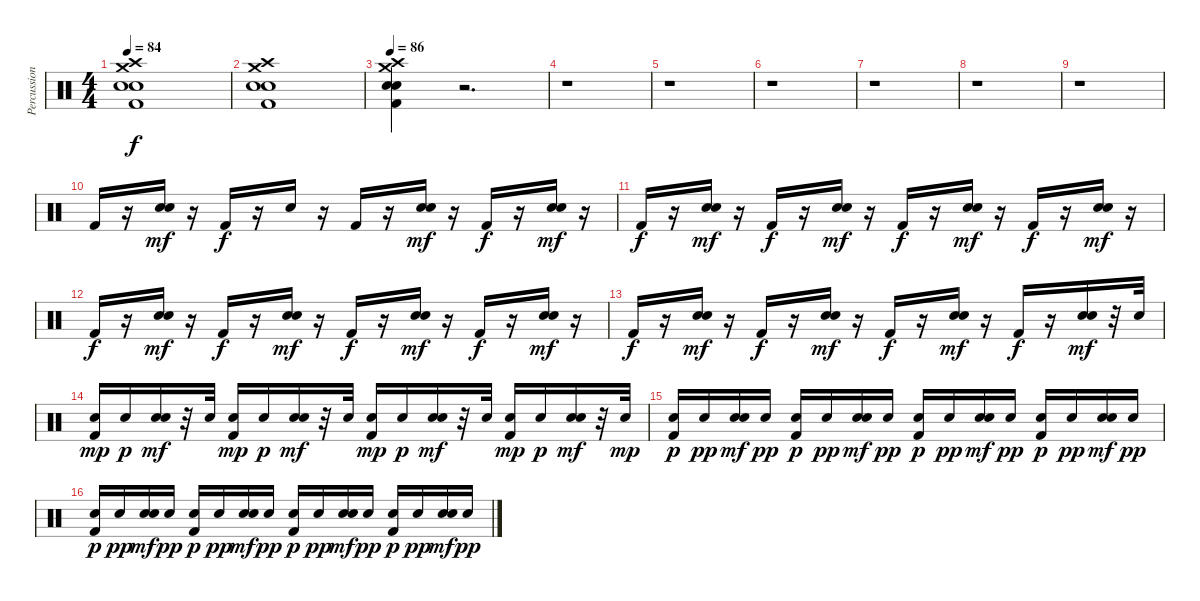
\track ("Percussion" "Percussion") {instrument percussion}
\staff
\articulation defaults
\ts (4 4)
\tempo 84
\clef neutral
\ks c
("Crash high (hit)" "Crash medium (hit)" "Electric Snare (hit)" "Snare (hit) 2" "Kick (hit) 2").1{dy f} |
("Crash high (hit)" "Crash medium (hit)" "Electric Snare (hit)" "Snare (hit) 2" "Kick (hit) 2").1 |
\tempo 86
("Crash high (hit)" "Crash medium (hit)" "Electric Snare (hit)" "Snare (hit) 2" "Kick (hit) 2").4 r.2{d} |
r.1 |
r.1 |
r.1 |
r.1 |
r.1 |
r.1{volume 3 balance 2} |
"Kick (hit) 2".16{volume 12} r.16 ("Snare (hit) 2" "Electric Snare (hit)").16{dy mf} r.16 "Kick (hit) 2".16{dy f} r.16 "Snare (hit) 2".16 r.16 "Kick (hit) 2".16 r.16 ("Electric Snare (hit)" "Snare (hit) 2").16{dy mf} r.16 "Kick (hit) 2".16{dy f volume 8} r.16 ("Electric Snare (hit)" "Snare (hit) 2").16{dy mf} r.16 |
"Kick (hit) 2".16{dy f} r.16 ("Electric Snare (hit)" "Snare (hit) 2").16{dy mf} r.16 "Kick (hit) 2".16{dy f volume 12} r.16 ("Electric Snare (hit)" "Snare (hit) 2").16{dy mf} r.16 "Kick (hit) 2".16{dy f} r.16 ("Electric Snare (hit)" "Snare (hit) 2").16{dy mf} r.16 "Kick (hit) 2".16{dy f} r.16 ("Electric Snare (hit)" "Snare (hit) 2").16{dy mf} r.16 |
"Kick (hit) 2".16{dy f} r.16 ("Electric Snare (hit)" "Snare (hit) 2").16{dy mf} r.16 "Kick (hit) 2".16{dy f} r.16 ("Electric Snare (hit)" "Snare (hit) 2").16{dy mf} r.16 "Kick (hit) 2".16{dy f} r.16 ("Electric Snare (hit)" "Snare (hit) 2").16{dy mf} r.16 "Kick (hit) 2".16{dy f} r.16 ("Electric Snare (hit)" "Snare (hit) 2").16{dy mf} r.16 |
"Kick (hit) 2".16{dy f} r.16 ("Electric Snare (hit)" "Snare (hit) 2").16{dy mf} r.16 "Kick (hit) 2".16{dy f} r.16 ("Electric Snare (hit)" "Snare (hit) 2").16{dy mf} r.16 "Kick (hit) 2".16{dy f} r.16 ("Electric Snare (hit)" "Snare (hit) 2").16{dy mf} r.16 "Kick (hit) 2".16{dy f} r.16 ("Electric Snare (hit)" "Snare (hit) 2").16{dy mf} r.32 "Snare (hit) 2".32 |
("Kick (hit) 2" "Snare (hit) 2").16{dy mp} "Snare (hit) 2".16{dy p} ("Electric Snare (hit)" "Snare (hit) 2").16{dy mf} r.32 "Snare (hit) 2".32 ("Kick (hit) 2" "Snare (hit) 2").16{dy mp} "Snare (hit) 2".16{dy p} ("Electric Snare (hit)" "Snare (hit) 2").16{dy mf} r.32 "Snare (hit) 2".32 ("Kick (hit) 2" "Snare (hit) 2").16{dy mp} "Snare (hit) 2".16{dy p} ("Electric Snare (hit)" "Snare (hit) 2").16{dy mf} r.32 "Snare (hit) 2".32 ("Kick (hit) 2" "Snare (hit) 2").16{dy mp} "Snare (hit) 2".16{dy p} ("Electric Snare (hit)" "Snare (hit) 2").16{dy mf} r.32 "Snare (hit) 2".32{dy mp} |
("Kick (hit) 2" "Snare (hit) 2").16{dy p} "Snare (hit) 2".16{dy pp} ("Electric Snare (hit)" "Snare (hit) 2").16{dy mf} "Snare (hit) 2".16{dy pp} ("Kick (hit) 2" "Snare (hit) 2").16{dy p} "Snare (hit) 2".16{dy pp} ("Electric Snare (hit)" "Snare (hit) 2").16{dy mf} "Snare (hit) 2".16{dy pp} ("Kick (hit) 2" "Snare (hit) 2").16{dy p} "Snare (hit) 2".16{dy pp} ("Electric Snare (hit)" "Snare (hit) 2").16{dy mf} "Snare (hit) 2".16{dy pp} ("Kick (hit) 2" "Snare (hit) 2").16{dy p} "Snare (hit) 2".16{dy pp} ("Electric Snare (hit)" "Snare (hit) 2").16{dy mf} "Snare (hit) 2".16{dy pp} |
("Kick (hit) 2" "Snare (hit) 2").16{dy p} "Snare (hit) 2".16{dy pp} ("Electric Snare (hit)" "Snare (hit) 2").16{dy mf} "Snare (hit) 2".16{dy pp} ("Kick (hit) 2" "Snare (hit) 2").16{dy p} "Snare (hit) 2".16{dy pp} ("Electric Snare (hit)" "Snare (hit) 2").16{dy mf} "Snare (hit) 2".16{dy pp} ("Kick (hit) 2" "Snare (hit) 2").16{dy p} "Snare (hit) 2".16{dy pp} ("Electric Snare (hit)" "Snare (hit) 2").16{dy mf} "Snare (hit) 2".16{dy pp} ("Kick (hit) 2" "Snare (hit) 2").16{dy p} "Snare (hit) 2".16{dy pp} ("Electric Snare (hit)" "Snare (hit) 2").16{dy mf} "Snare (hit) 2".16{dy pp}
